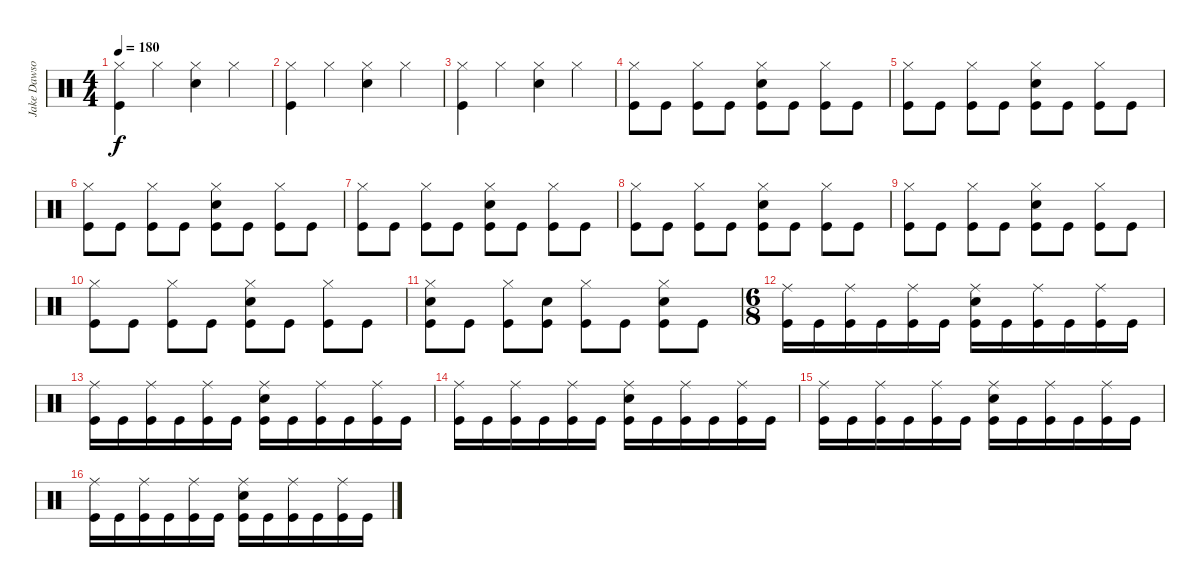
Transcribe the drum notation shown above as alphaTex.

\track ("Jake Dawson" "Jake Dawso") {instrument percussion}
\staff {score}
\articulation defaults
\ts (4 4)
\tempo 180
\clef neutral
\ks c
("Hi-Hat (closed)" "Kick (hit)").4{dy f} "Hi-Hat (closed)".4 ("Hi-Hat (closed)" "Snare (hit) 2").4 "Hi-Hat (closed)".4 |
("Hi-Hat (closed)" "Kick (hit)").4 "Hi-Hat (closed)".4 ("Hi-Hat (closed)" "Snare (hit) 2").4 "Hi-Hat (closed)".4 |
("Hi-Hat (closed)" "Kick (hit)").4 "Hi-Hat (closed)".4 ("Hi-Hat (closed)" "Snare (hit) 2").4 "Hi-Hat (closed)".4 |
("Hi-Hat (closed)" "Kick (hit)").8 "Kick (hit)".8 ("Hi-Hat (closed)" "Kick (hit)").8 "Kick (hit)".8 ("Hi-Hat (closed)" "Snare (hit) 2" "Kick (hit)").8 "Kick (hit)".8 ("Hi-Hat (closed)" "Kick (hit)").8 "Kick (hit)".8 |
("Hi-Hat (closed)" "Kick (hit)").8 "Kick (hit)".8 ("Hi-Hat (closed)" "Kick (hit)").8 "Kick (hit)".8 ("Hi-Hat (closed)" "Snare (hit) 2" "Kick (hit)").8 "Kick (hit)".8 ("Hi-Hat (closed)" "Kick (hit)").8 "Kick (hit)".8 |
("Hi-Hat (closed)" "Kick (hit)").8 "Kick (hit)".8 ("Hi-Hat (closed)" "Kick (hit)").8 "Kick (hit)".8 ("Hi-Hat (closed)" "Snare (hit) 2" "Kick (hit)").8 "Kick (hit)".8 ("Hi-Hat (closed)" "Kick (hit)").8 "Kick (hit)".8 |
("Hi-Hat (closed)" "Kick (hit)").8 "Kick (hit)".8 ("Hi-Hat (closed)" "Kick (hit)").8 "Kick (hit)".8 ("Hi-Hat (closed)" "Snare (hit) 2" "Kick (hit)").8 "Kick (hit)".8 ("Hi-Hat (closed)" "Kick (hit)").8 "Kick (hit)".8 |
("Hi-Hat (closed)" "Kick (hit)").8 "Kick (hit)".8 ("Hi-Hat (closed)" "Kick (hit)").8 "Kick (hit)".8 ("Hi-Hat (closed)" "Snare (hit) 2" "Kick (hit)").8 "Kick (hit)".8 ("Hi-Hat (closed)" "Kick (hit)").8 "Kick (hit)".8 |
("Hi-Hat (closed)" "Kick (hit)").8 "Kick (hit)".8 ("Hi-Hat (closed)" "Kick (hit)").8 "Kick (hit)".8 ("Hi-Hat (closed)" "Snare (hit) 2" "Kick (hit)").8 "Kick (hit)".8 ("Hi-Hat (closed)" "Kick (hit)").8 "Kick (hit)".8 |
("Hi-Hat (closed)" "Kick (hit)").8 "Kick (hit)".8 ("Hi-Hat (closed)" "Kick (hit)").8 "Kick (hit)".8 ("Hi-Hat (closed)" "Snare (hit) 2" "Kick (hit)").8 "Kick (hit)".8 ("Hi-Hat (closed)" "Kick (hit)").8 "Kick (hit)".8 |
("Hi-Hat (closed)" "Snare (hit) 2" "Kick (hit)").8 "Kick (hit)".8 ("Hi-Hat (closed)" "Kick (hit)").8 ("Snare (hit) 2" "Kick (hit)").8 ("Hi-Hat (closed)" "Kick (hit)").8 "Kick (hit)".8 ("Hi-Hat (closed)" "Snare (hit) 2" "Kick (hit)").8 "Kick (hit)".8 |
\ts (6 8)
("Ride (middle)" "Kick (hit)").16 "Kick (hit)".16 ("Ride (middle)" "Kick (hit)").16 "Kick (hit)".16 ("Ride (middle)" "Kick (hit)").16 "Kick (hit)".16 ("Ride (middle)" "Snare (hit) 2" "Kick (hit)").16 "Kick (hit)".16 ("Ride (middle)" "Kick (hit)").16 "Kick (hit)".16 ("Ride (middle)" "Kick (hit)").16 "Kick (hit)".16 |
("Ride (middle)" "Kick (hit)").16 "Kick (hit)".16 ("Ride (middle)" "Kick (hit)").16 "Kick (hit)".16 ("Ride (middle)" "Kick (hit)").16 "Kick (hit)".16 ("Ride (middle)" "Snare (hit) 2" "Kick (hit)").16 "Kick (hit)".16 ("Ride (middle)" "Kick (hit)").16 "Kick (hit)".16 ("Ride (middle)" "Kick (hit)").16 "Kick (hit)".16 |
("Ride (middle)" "Kick (hit)").16 "Kick (hit)".16 ("Ride (middle)" "Kick (hit)").16 "Kick (hit)".16 ("Ride (middle)" "Kick (hit)").16 "Kick (hit)".16 ("Ride (middle)" "Snare (hit) 2" "Kick (hit)").16 "Kick (hit)".16 ("Ride (middle)" "Kick (hit)").16 "Kick (hit)".16 ("Ride (middle)" "Kick (hit)").16 "Kick (hit)".16 |
("Ride (middle)" "Kick (hit)").16 "Kick (hit)".16 ("Ride (middle)" "Kick (hit)").16 "Kick (hit)".16 ("Ride (middle)" "Kick (hit)").16 "Kick (hit)".16 ("Ride (middle)" "Snare (hit) 2" "Kick (hit)").16 "Kick (hit)".16 ("Ride (middle)" "Kick (hit)").16 "Kick (hit)".16 ("Ride (middle)" "Kick (hit)").16 "Kick (hit)".16 |
("Ride (middle)" "Kick (hit)").16 "Kick (hit)".16 ("Ride (middle)" "Kick (hit)").16 "Kick (hit)".16 ("Ride (middle)" "Kick (hit)").16 "Kick (hit)".16 ("Ride (middle)" "Snare (hit) 2" "Kick (hit)").16 "Kick (hit)".16 ("Ride (middle)" "Kick (hit)").16 "Kick (hit)".16 ("Ride (middle)" "Kick (hit)").16 "Kick (hit)".16
